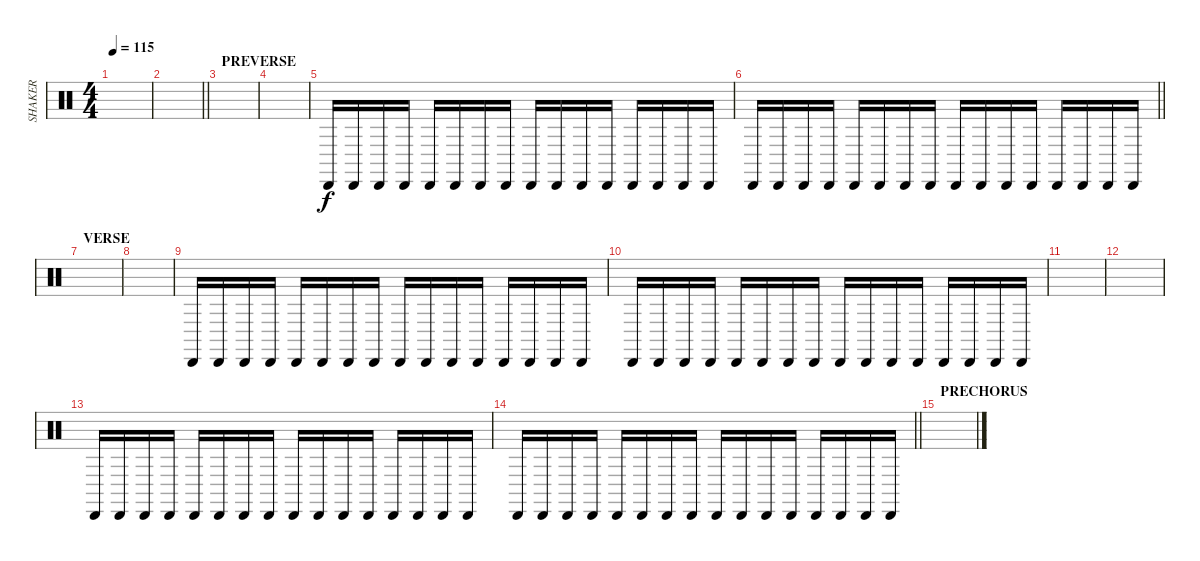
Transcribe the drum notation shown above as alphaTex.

\track ("SHAKER" "SHAKER") {instrument percussion}
\staff {score}
\articulation defaults
\ts (4 4)
\tempo 115
\clef neutral
\ks c
|
\barLineRight lightlight
|
\section ("" "PREVERSE")
|
|
"Cabasa (hit)".16 "Cabasa (hit)".16 "Cabasa (hit)".16 "Cabasa (hit)".16 "Cabasa (hit)".16 "Cabasa (hit)".16 "Cabasa (hit)".16 "Cabasa (hit)".16 "Cabasa (hit)".16 "Cabasa (hit)".16 "Cabasa (hit)".16 "Cabasa (hit)".16 "Cabasa (hit)".16 "Cabasa (hit)".16 "Cabasa (hit)".16 "Cabasa (hit)".16 |
\barLineRight lightlight "Cabasa (hit)".16 "Cabasa (hit)".16 "Cabasa (hit)".16 "Cabasa (hit)".16 "Cabasa (hit)".16 "Cabasa (hit)".16 "Cabasa (hit)".16 "Cabasa (hit)".16 "Cabasa (hit)".16 "Cabasa (hit)".16 "Cabasa (hit)".16 "Cabasa (hit)".16 "Cabasa (hit)".16 "Cabasa (hit)".16 "Cabasa (hit)".16 "Cabasa (hit)".16
|
\section ("" "VERSE")
|
|
"Cabasa (hit)".16 "Cabasa (hit)".16 "Cabasa (hit)".16 "Cabasa (hit)".16 "Cabasa (hit)".16 "Cabasa (hit)".16 "Cabasa (hit)".16 "Cabasa (hit)".16 "Cabasa (hit)".16 "Cabasa (hit)".16 "Cabasa (hit)".16 "Cabasa (hit)".16 "Cabasa (hit)".16 "Cabasa (hit)".16 "Cabasa (hit)".16 "Cabasa (hit)".16 |
"Cabasa (hit)".16 "Cabasa (hit)".16 "Cabasa (hit)".16 "Cabasa (hit)".16 "Cabasa (hit)".16 "Cabasa (hit)".16 "Cabasa (hit)".16 "Cabasa (hit)".16 "Cabasa (hit)".16 "Cabasa (hit)".16 "Cabasa (hit)".16 "Cabasa (hit)".16 "Cabasa (hit)".16 "Cabasa (hit)".16 "Cabasa (hit)".16 "Cabasa (hit)".16 |
|
|
"Cabasa (hit)".16 "Cabasa (hit)".16 "Cabasa (hit)".16 "Cabasa (hit)".16 "Cabasa (hit)".16 "Cabasa (hit)".16 "Cabasa (hit)".16 "Cabasa (hit)".16 "Cabasa (hit)".16 "Cabasa (hit)".16 "Cabasa (hit)".16 "Cabasa (hit)".16 "Cabasa (hit)".16 "Cabasa (hit)".16 "Cabasa (hit)".16 "Cabasa (hit)".16 |
\barLineRight lightlight "Cabasa (hit)".16 "Cabasa (hit)".16 "Cabasa (hit)".16 "Cabasa (hit)".16 "Cabasa (hit)".16 "Cabasa (hit)".16 "Cabasa (hit)".16 "Cabasa (hit)".16 "Cabasa (hit)".16 "Cabasa (hit)".16 "Cabasa (hit)".16 "Cabasa (hit)".16 "Cabasa (hit)".16 "Cabasa (hit)".16 "Cabasa (hit)".16 "Cabasa (hit)".16
|
\section ("" "PRECHORUS")
